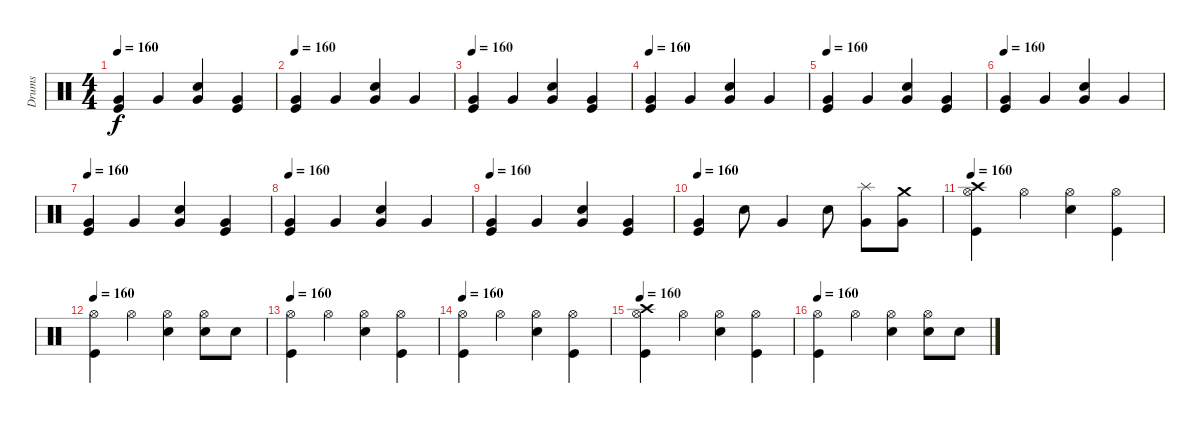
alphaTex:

\track ("Drums" "Drums") {instrument percussion}
\staff {score}
\articulation defaults
\ts (4 4)
\tempo 160
\clef neutral
\ks c
("Very Low Tom (hit)" "Kick (hit)").4{dy f} "Very Low Tom (hit)".4 ("Very Low Tom (hit)" "Snare (hit) 2").4 ("Very Low Tom (hit)" "Kick (hit)").4 |
\tempo 160
("Very Low Tom (hit)" "Kick (hit)").4 "Very Low Tom (hit)".4 ("Very Low Tom (hit)" "Snare (hit) 2").4 "Very Low Tom (hit)".4 |
\tempo 160
("Very Low Tom (hit)" "Kick (hit)").4 "Very Low Tom (hit)".4 ("Very Low Tom (hit)" "Snare (hit) 2").4 ("Very Low Tom (hit)" "Kick (hit)").4 |
\tempo 160
("Very Low Tom (hit)" "Kick (hit)").4 "Very Low Tom (hit)".4 ("Very Low Tom (hit)" "Snare (hit) 2").4 "Very Low Tom (hit)".4 |
\tempo 160
("Very Low Tom (hit)" "Kick (hit)").4 "Very Low Tom (hit)".4 ("Very Low Tom (hit)" "Snare (hit) 2").4 ("Very Low Tom (hit)" "Kick (hit)").4 |
\tempo 160
("Very Low Tom (hit)" "Kick (hit)").4 "Very Low Tom (hit)".4 ("Very Low Tom (hit)" "Snare (hit) 2").4 "Very Low Tom (hit)".4 |
\tempo 160
("Very Low Tom (hit)" "Kick (hit)").4 "Very Low Tom (hit)".4 ("Very Low Tom (hit)" "Snare (hit) 2").4 ("Very Low Tom (hit)" "Kick (hit)").4 |
\tempo 160
("Very Low Tom (hit)" "Kick (hit)").4 "Very Low Tom (hit)".4 ("Very Low Tom (hit)" "Snare (hit) 2").4 "Very Low Tom (hit)".4 |
\tempo 160
("Very Low Tom (hit)" "Kick (hit)").4 "Very Low Tom (hit)".4 ("Very Low Tom (hit)" "Snare (hit) 2").4 ("Very Low Tom (hit)" "Kick (hit)").4 |
\tempo 160
("Very Low Tom (hit)" "Kick (hit)").4 "Snare (hit) 2".8 "Very Low Tom (hit)".4 "Snare (hit) 2".8 ("Splash (hit)" "Very Low Tom (hit)").8 ("Crash medium (hit)" "Very Low Tom (hit)").8 |
\tempo 160
("Crash high (hit)" "Hi-Hat (open)" "Kick (hit)").4 "Hi-Hat (open)".4 ("Hi-Hat (open)" "Snare (hit) 2").4 ("Hi-Hat (open)" "Kick (hit)").4 |
\tempo 160
("Hi-Hat (open)" "Kick (hit)").4 "Hi-Hat (open)".4 ("Hi-Hat (open)" "Snare (hit) 2").4 ("Hi-Hat (open)" "Snare (hit) 2").8 "Snare (hit) 2".8 |
\tempo 160
("Hi-Hat (open)" "Kick (hit)").4 "Hi-Hat (open)".4 ("Hi-Hat (open)" "Snare (hit) 2").4 ("Hi-Hat (open)" "Kick (hit)").4 |
\tempo 160
("Hi-Hat (open)" "Kick (hit)").4 "Hi-Hat (open)".4 ("Hi-Hat (open)" "Snare (hit) 2").4 ("Hi-Hat (open)" "Kick (hit)").4 |
\tempo 160
("Crash high (hit)" "Hi-Hat (open)" "Kick (hit)").4 "Hi-Hat (open)".4 ("Hi-Hat (open)" "Snare (hit) 2").4 ("Hi-Hat (open)" "Kick (hit)").4 |
\tempo 160
("Hi-Hat (open)" "Kick (hit)").4 "Hi-Hat (open)".4 ("Hi-Hat (open)" "Snare (hit) 2").4 ("Hi-Hat (open)" "Snare (hit) 2").8 "Snare (hit) 2".8
